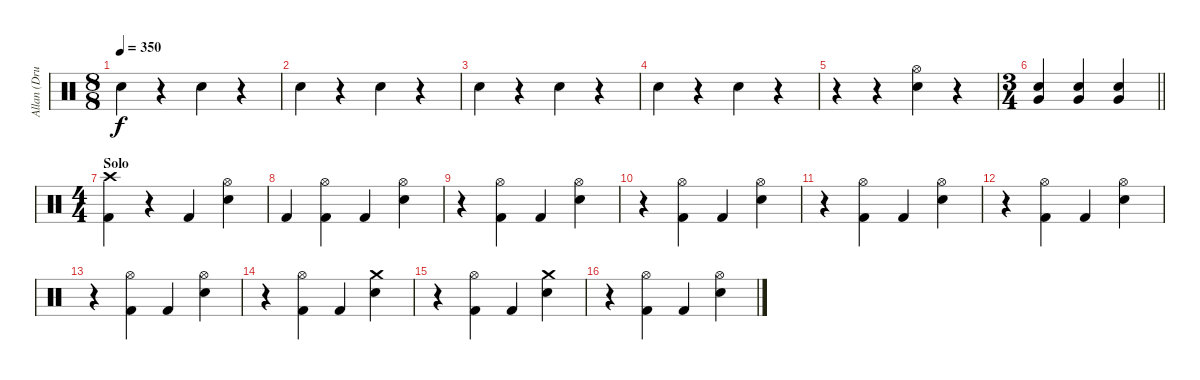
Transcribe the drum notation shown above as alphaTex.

\track ("Allan (Drums)" "Allan (Dru") {solo instrument percussion}
\staff {score}
\articulation defaults
\ts (8 8)
\tempo 350
\clef neutral
\ks c "Snare (hit) 2".4{dy f}
r.4 "Snare (hit) 2".4 r.4 |
"Snare (hit) 2".4 r.4 "Snare (hit) 2".4 r.4 |
"Snare (hit) 2".4 r.4 "Snare (hit) 2".4 r.4 |
"Snare (hit) 2".4 r.4 "Snare (hit) 2".4 r.4 |
r.4 r.4 ("Hi-Hat (open)" "Snare (hit) 2").4 r.4 |
\ts (3 4)
\barLineRight lightlight
("Very Low Tom (hit)" "Snare (hit) 2").4 ("Very Low Tom (hit)" "Snare (hit) 2").4 ("Very Low Tom (hit)" "Snare (hit) 2").4 |
\ts (4 4)
\section ("" "Solo")
("Crash high (hit)" "Kick (hit) 2").4 r.4 "Kick (hit) 2".4 ("Hi-Hat (open)" "Snare (hit) 2").4 |
"Kick (hit) 2".4 ("Hi-Hat (open)" "Kick (hit) 2").4 "Kick (hit) 2".4 ("Hi-Hat (open)" "Snare (hit) 2").4 |
r.4 ("Hi-Hat (open)" "Kick (hit) 2").4 "Kick (hit) 2".4 ("Hi-Hat (open)" "Snare (hit) 2").4 |
r.4 ("Hi-Hat (open)" "Kick (hit) 2").4 "Kick (hit) 2".4 ("Hi-Hat (open)" "Snare (hit) 2").4 |
r.4 ("Hi-Hat (open)" "Kick (hit) 2").4 "Kick (hit) 2".4 ("Hi-Hat (open)" "Snare (hit) 2").4 |
r.4 ("Hi-Hat (open)" "Kick (hit) 2").4 "Kick (hit) 2".4 ("Hi-Hat (open)" "Snare (hit) 2").4 |
r.4 ("Hi-Hat (open)" "Kick (hit) 2").4 "Kick (hit) 2".4 ("Hi-Hat (open)" "Snare (hit) 2").4 |
r.4 ("Hi-Hat (open)" "Kick (hit) 2").4 "Kick (hit) 2".4 ("Crash medium (hit)" "Snare (hit) 2").4 |
r.4 ("Hi-Hat (open)" "Kick (hit) 2").4 "Kick (hit) 2".4 ("Crash medium (hit)" "Snare (hit) 2").4 |
r.4 ("Hi-Hat (open)" "Kick (hit) 2").4 "Kick (hit) 2".4 ("Hi-Hat (open)" "Snare (hit) 2").4
